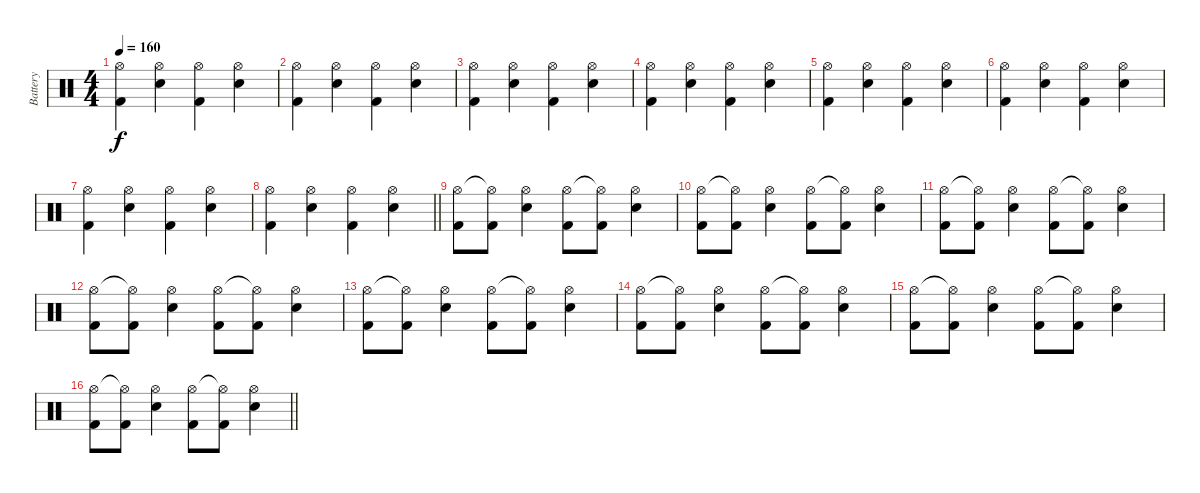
\track ("Battery" "Battery") {instrument percussion}
\staff {score}
\articulation defaults
\ts (4 4)
\tempo 160
\clef neutral
\ks c
("Hi-Hat (open)" "Kick (hit) 2").4{dy f} ("Hi-Hat (open)" "Snare (hit) 2").4 ("Hi-Hat (open)" "Kick (hit) 2").4 ("Hi-Hat (open)" "Snare (hit) 2").4 |
("Hi-Hat (open)" "Kick (hit) 2").4 ("Hi-Hat (open)" "Snare (hit) 2").4 ("Hi-Hat (open)" "Kick (hit) 2").4 ("Hi-Hat (open)" "Snare (hit) 2").4 |
("Hi-Hat (open)" "Kick (hit) 2").4 ("Hi-Hat (open)" "Snare (hit) 2").4 ("Hi-Hat (open)" "Kick (hit) 2").4 ("Hi-Hat (open)" "Snare (hit) 2").4 |
("Hi-Hat (open)" "Kick (hit) 2").4 ("Hi-Hat (open)" "Snare (hit) 2").4 ("Hi-Hat (open)" "Kick (hit) 2").4 ("Hi-Hat (open)" "Snare (hit) 2").4 |
("Hi-Hat (open)" "Kick (hit) 2").4 ("Hi-Hat (open)" "Snare (hit) 2").4 ("Hi-Hat (open)" "Kick (hit) 2").4 ("Hi-Hat (open)" "Snare (hit) 2").4 |
("Hi-Hat (open)" "Kick (hit) 2").4 ("Hi-Hat (open)" "Snare (hit) 2").4 ("Hi-Hat (open)" "Kick (hit) 2").4 ("Hi-Hat (open)" "Snare (hit) 2").4 |
("Hi-Hat (open)" "Kick (hit) 2").4 ("Hi-Hat (open)" "Snare (hit) 2").4 ("Hi-Hat (open)" "Kick (hit) 2").4 ("Hi-Hat (open)" "Snare (hit) 2").4 |
\barLineRight lightlight
("Hi-Hat (open)" "Kick (hit) 2").4 ("Hi-Hat (open)" "Snare (hit) 2").4 ("Hi-Hat (open)" "Kick (hit) 2").4 ("Hi-Hat (open)" "Snare (hit) 2").4 |
("Hi-Hat (open)" "Kick (hit) 2").8 ("Hi-Hat (open)"{t} "Kick (hit) 2").8 ("Hi-Hat (open)" "Snare (hit) 2").4 ("Hi-Hat (open)" "Kick (hit) 2").8 ("Hi-Hat (open)"{t} "Kick (hit) 2").8 ("Hi-Hat (open)" "Snare (hit) 2").4 |
("Hi-Hat (open)" "Kick (hit) 2").8 ("Hi-Hat (open)"{t} "Kick (hit) 2").8 ("Hi-Hat (open)" "Snare (hit) 2").4 ("Hi-Hat (open)" "Kick (hit) 2").8 ("Hi-Hat (open)"{t} "Kick (hit) 2").8 ("Hi-Hat (open)" "Snare (hit) 2").4 |
("Hi-Hat (open)" "Kick (hit) 2").8 ("Hi-Hat (open)"{t} "Kick (hit) 2").8 ("Hi-Hat (open)" "Snare (hit) 2").4 ("Hi-Hat (open)" "Kick (hit) 2").8 ("Hi-Hat (open)"{t} "Kick (hit) 2").8 ("Hi-Hat (open)" "Snare (hit) 2").4 |
("Hi-Hat (open)" "Kick (hit) 2").8 ("Hi-Hat (open)"{t} "Kick (hit) 2").8 ("Hi-Hat (open)" "Snare (hit) 2").4 ("Hi-Hat (open)" "Kick (hit) 2").8 ("Hi-Hat (open)"{t} "Kick (hit) 2").8 ("Hi-Hat (open)" "Snare (hit) 2").4 |
("Hi-Hat (open)" "Kick (hit) 2").8 ("Hi-Hat (open)"{t} "Kick (hit) 2").8 ("Hi-Hat (open)" "Snare (hit) 2").4 ("Hi-Hat (open)" "Kick (hit) 2").8 ("Hi-Hat (open)"{t} "Kick (hit) 2").8 ("Hi-Hat (open)" "Snare (hit) 2").4 |
("Hi-Hat (open)" "Kick (hit) 2").8 ("Hi-Hat (open)"{t} "Kick (hit) 2").8 ("Hi-Hat (open)" "Snare (hit) 2").4 ("Hi-Hat (open)" "Kick (hit) 2").8 ("Hi-Hat (open)"{t} "Kick (hit) 2").8 ("Hi-Hat (open)" "Snare (hit) 2").4 |
("Hi-Hat (open)" "Kick (hit) 2").8 ("Hi-Hat (open)"{t} "Kick (hit) 2").8 ("Hi-Hat (open)" "Snare (hit) 2").4 ("Hi-Hat (open)" "Kick (hit) 2").8 ("Hi-Hat (open)"{t} "Kick (hit) 2").8 ("Hi-Hat (open)" "Snare (hit) 2").4 |
\barLineRight lightlight
("Hi-Hat (open)" "Kick (hit) 2").8 ("Hi-Hat (open)"{t} "Kick (hit) 2").8 ("Hi-Hat (open)" "Snare (hit) 2").4 ("Hi-Hat (open)" "Kick (hit) 2").8 ("Hi-Hat (open)"{t} "Kick (hit) 2").8 ("Hi-Hat (open)" "Snare (hit) 2").4
